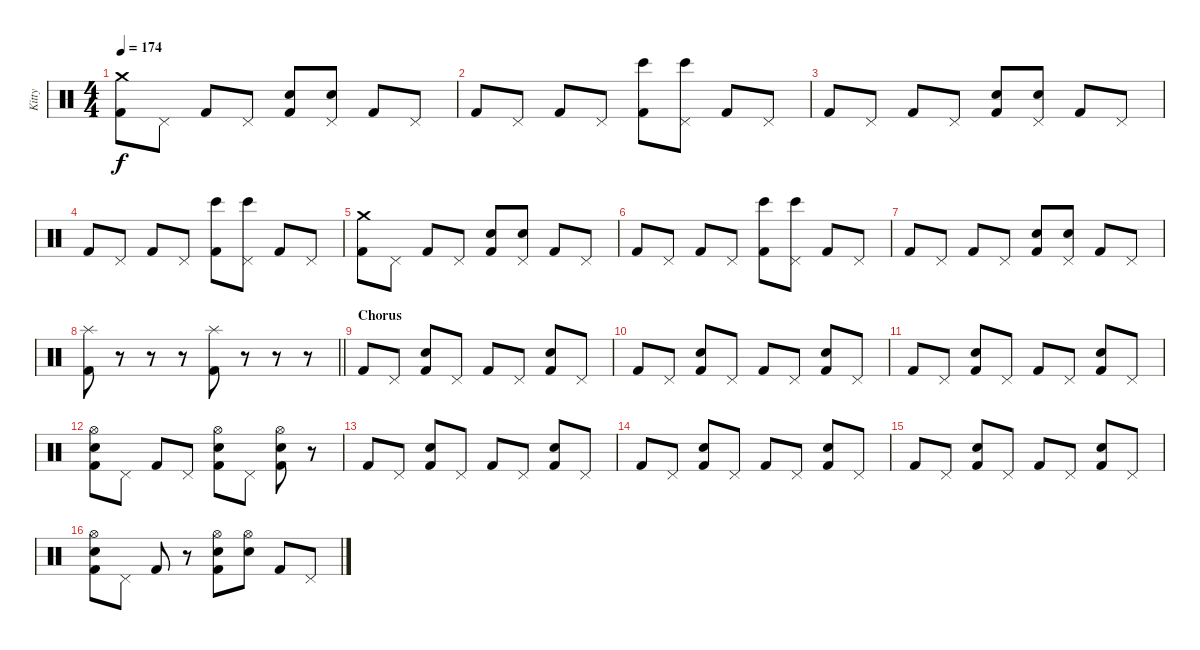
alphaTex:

\track ("Kitty" "Kitty") {instrument percussion}
\staff {score}
\articulation defaults
\ts (4 4)
\tempo 174
\clef neutral
\ks c
("Crash medium (hit)" "Kick (hit) 2").8{dy f} "Pedal Hi-Hat (hit)".8 "Kick (hit) 2".8 "Pedal Hi-Hat (hit)".8 ("Hand Clap (hit)" "Kick (hit) 2").8 ("Hand Clap (hit)" "Pedal Hi-Hat (hit)").8 "Kick (hit) 2".8 "Pedal Hi-Hat (hit)".8 |
"Kick (hit) 2".8 "Pedal Hi-Hat (hit)".8 "Kick (hit) 2".8 "Pedal Hi-Hat (hit)".8 ("Bongo High (hit)" "Kick (hit) 2").8 ("Bongo High (hit)" "Pedal Hi-Hat (hit)").8 "Kick (hit) 2".8 "Pedal Hi-Hat (hit)".8 |
"Kick (hit) 2".8 "Pedal Hi-Hat (hit)".8 "Kick (hit) 2".8 "Pedal Hi-Hat (hit)".8 ("Hand Clap (hit)" "Kick (hit) 2").8 ("Hand Clap (hit)" "Pedal Hi-Hat (hit)").8 "Kick (hit) 2".8 "Pedal Hi-Hat (hit)".8 |
"Kick (hit) 2".8 "Pedal Hi-Hat (hit)".8 "Kick (hit) 2".8 "Pedal Hi-Hat (hit)".8 ("Bongo High (hit)" "Kick (hit) 2").8 ("Bongo High (hit)" "Pedal Hi-Hat (hit)").8 "Kick (hit) 2".8 "Pedal Hi-Hat (hit)".8 |
("Crash medium (hit)" "Kick (hit) 2").8 "Pedal Hi-Hat (hit)".8 "Kick (hit) 2".8 "Pedal Hi-Hat (hit)".8 ("Hand Clap (hit)" "Kick (hit) 2").8 ("Hand Clap (hit)" "Pedal Hi-Hat (hit)").8 "Kick (hit) 2".8 "Pedal Hi-Hat (hit)".8 |
"Kick (hit) 2".8 "Pedal Hi-Hat (hit)".8 "Kick (hit) 2".8 "Pedal Hi-Hat (hit)".8 ("Bongo High (hit)" "Kick (hit) 2").8 ("Bongo High (hit)" "Pedal Hi-Hat (hit)").8 "Kick (hit) 2".8 "Pedal Hi-Hat (hit)".8 |
"Kick (hit) 2".8 "Pedal Hi-Hat (hit)".8 "Kick (hit) 2".8 "Pedal Hi-Hat (hit)".8 ("Hand Clap (hit)" "Kick (hit) 2").8 ("Hand Clap (hit)" "Pedal Hi-Hat (hit)").8 "Kick (hit) 2".8 "Pedal Hi-Hat (hit)".8 |
\barLineRight lightlight
("Splash (hit)" "Kick (hit) 2").8 r.8 r.8 r.8 ("Splash (hit)" "Kick (hit) 2").8 r.8 r.8 r.8 |
\section ("" "Chorus")
"Kick (hit) 2".8 "Pedal Hi-Hat (hit)".8 ("Snare (hit) 2" "Kick (hit) 2").8 "Pedal Hi-Hat (hit)".8 "Kick (hit) 2".8 "Pedal Hi-Hat (hit)".8 ("Snare (hit) 2" "Kick (hit) 2").8 "Pedal Hi-Hat (hit)".8 |
"Kick (hit) 2".8 "Pedal Hi-Hat (hit)".8 ("Snare (hit) 2" "Kick (hit) 2").8 "Pedal Hi-Hat (hit)".8 "Kick (hit) 2".8 "Pedal Hi-Hat (hit)".8 ("Snare (hit) 2" "Kick (hit) 2").8 "Pedal Hi-Hat (hit)".8 |
"Kick (hit) 2".8 "Pedal Hi-Hat (hit)".8 ("Snare (hit) 2" "Kick (hit) 2").8 "Pedal Hi-Hat (hit)".8 "Kick (hit) 2".8 "Pedal Hi-Hat (hit)".8 ("Snare (hit) 2" "Kick (hit) 2").8 "Pedal Hi-Hat (hit)".8 |
("Hi-Hat (open)" "Snare (hit) 2" "Kick (hit) 2").8 "Pedal Hi-Hat (hit)".8 "Kick (hit) 2".8 "Pedal Hi-Hat (hit)".8 ("Hi-Hat (open)" "Snare (hit) 2" "Kick (hit) 2").8 "Pedal Hi-Hat (hit)".8 ("Hi-Hat (open)" "Snare (hit) 2" "Kick (hit) 2").8 r.8 |
"Kick (hit) 2".8 "Pedal Hi-Hat (hit)".8 ("Snare (hit) 2" "Kick (hit) 2").8 "Pedal Hi-Hat (hit)".8 "Kick (hit) 2".8 "Pedal Hi-Hat (hit)".8 ("Snare (hit) 2" "Kick (hit) 2").8 "Pedal Hi-Hat (hit)".8 |
"Kick (hit) 2".8 "Pedal Hi-Hat (hit)".8 ("Snare (hit) 2" "Kick (hit) 2").8 "Pedal Hi-Hat (hit)".8 "Kick (hit) 2".8 "Pedal Hi-Hat (hit)".8 ("Snare (hit) 2" "Kick (hit) 2").8 "Pedal Hi-Hat (hit)".8 |
"Kick (hit) 2".8 "Pedal Hi-Hat (hit)".8 ("Snare (hit) 2" "Kick (hit) 2").8 "Pedal Hi-Hat (hit)".8 "Kick (hit) 2".8 "Pedal Hi-Hat (hit)".8 ("Snare (hit) 2" "Kick (hit) 2").8 "Pedal Hi-Hat (hit)".8 |
("Hi-Hat (open)" "Snare (hit) 2" "Kick (hit) 2").8 "Pedal Hi-Hat (hit)".8 "Kick (hit) 2".8 r.8 ("Hi-Hat (open)" "Snare (hit) 2" "Kick (hit) 2").8 ("Hi-Hat (open)" "Snare (hit) 2").8 "Kick (hit) 2".8 "Pedal Hi-Hat (hit)".8
